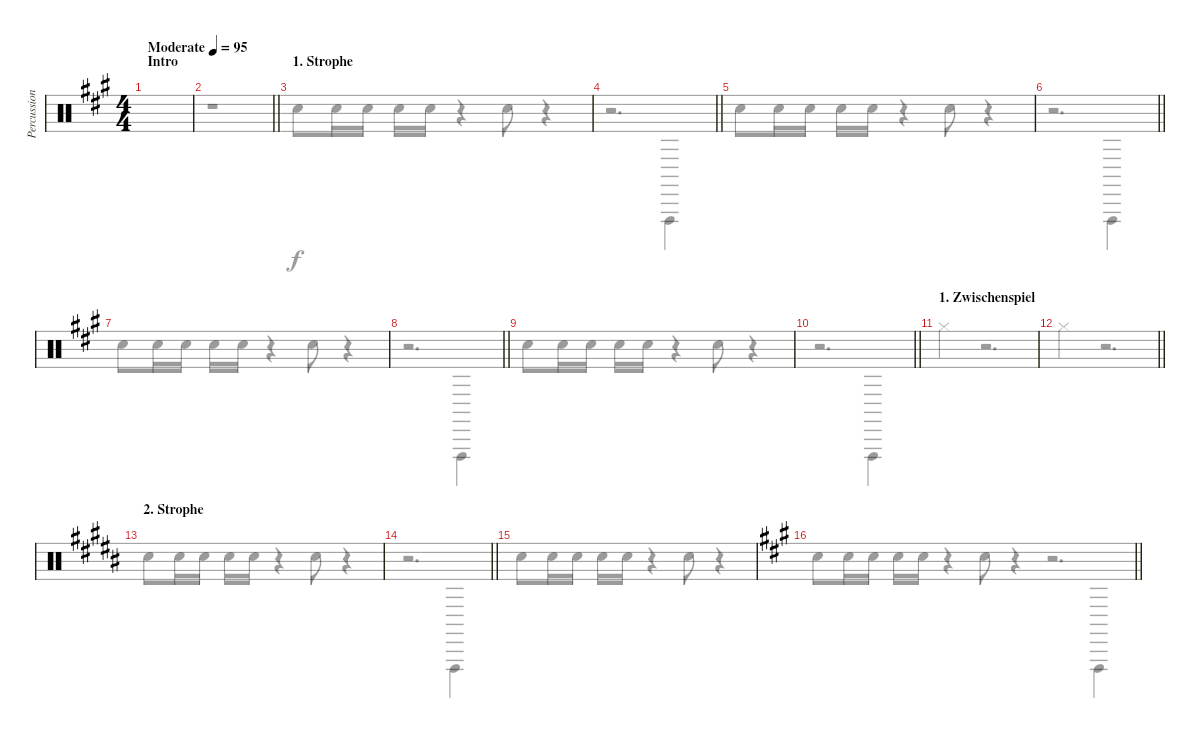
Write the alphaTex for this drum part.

\track ("Percussion" "Percussion") {instrument percussion}
\staff {score}
\articulation defaults
\voice
\ts (4 4)
\section ("" "Intro")
\tempo (95 "Moderate")
\clef neutral
\ks a
|
\barLineRight lightlight
|
\section ("" "1. Strophe")
|
\barLineRight lightlight
|
|
\barLineRight lightlight
|
|
\barLineRight lightlight
|
|
\barLineRight lightlight
|
\section ("" "1. Zwischenspiel")
|
\barLineRight lightlight
|
\section ("" "2. Strophe")
\ks b
|
\barLineRight lightlight
|
|
\barLineRight lightlight
\voice
\clef neutral
\ks a "Snare (hit) 2".8{dy f} "Hand Clap (hit)".16 "Hand Clap (hit)".16 "Hand Clap (hit)".16 "Hand Clap (hit)".16
r.4 "Electric Snare (hit)".8 r.4 |
\barLineRight lightlight
r.1 |
"Snare (hit) 2".8 "Hand Clap (hit)".16 "Hand Clap (hit)".16 "Hand Clap (hit)".16 "Hand Clap (hit)".16 r.4 "Electric Snare (hit)".8 r.4 |
\barLineRight lightlight
r.2{d} "Vibraslap (hit)".4 |
"Snare (hit) 2".8 "Hand Clap (hit)".16 "Hand Clap (hit)".16 "Hand Clap (hit)".16 "Hand Clap (hit)".16 r.4 "Electric Snare (hit)".8 r.4 |
\barLineRight lightlight
r.2{d} "Vibraslap (hit)".4 |
"Snare (hit) 2".8 "Hand Clap (hit)".16 "Hand Clap (hit)".16 "Hand Clap (hit)".16 "Hand Clap (hit)".16 r.4 "Electric Snare (hit)".8 r.4 |
\barLineRight lightlight
r.2{d} "Vibraslap (hit)".4 |
"Snare (hit) 2".8 "Hand Clap (hit)".16 "Hand Clap (hit)".16 "Hand Clap (hit)".16 "Hand Clap (hit)".16 r.4 "Electric Snare (hit)".8 r.4 |
\barLineRight lightlight
r.2{d} "Vibraslap (hit)".4 |
"Hi-Hat (closed)".4 r.2{d} |
\barLineRight lightlight "Hi-Hat (closed)".4
r.2{d} |
\ks b "Snare (hit) 2".8 "Hand Clap (hit)".16 "Hand Clap (hit)".16 "Hand Clap (hit)".16 "Hand Clap (hit)".16
r.4 "Electric Snare (hit)".8 r.4 |
\barLineRight lightlight
r.2{d} "Vibraslap (hit)".4 |
"Snare (hit) 2".8 "Hand Clap (hit)".16 "Hand Clap (hit)".16 "Hand Clap (hit)".16 "Hand Clap (hit)".16 r.4 "Electric Snare (hit)".8 r.4 |
\barLineRight lightlight
r.2{d} "Vibraslap (hit)".4
